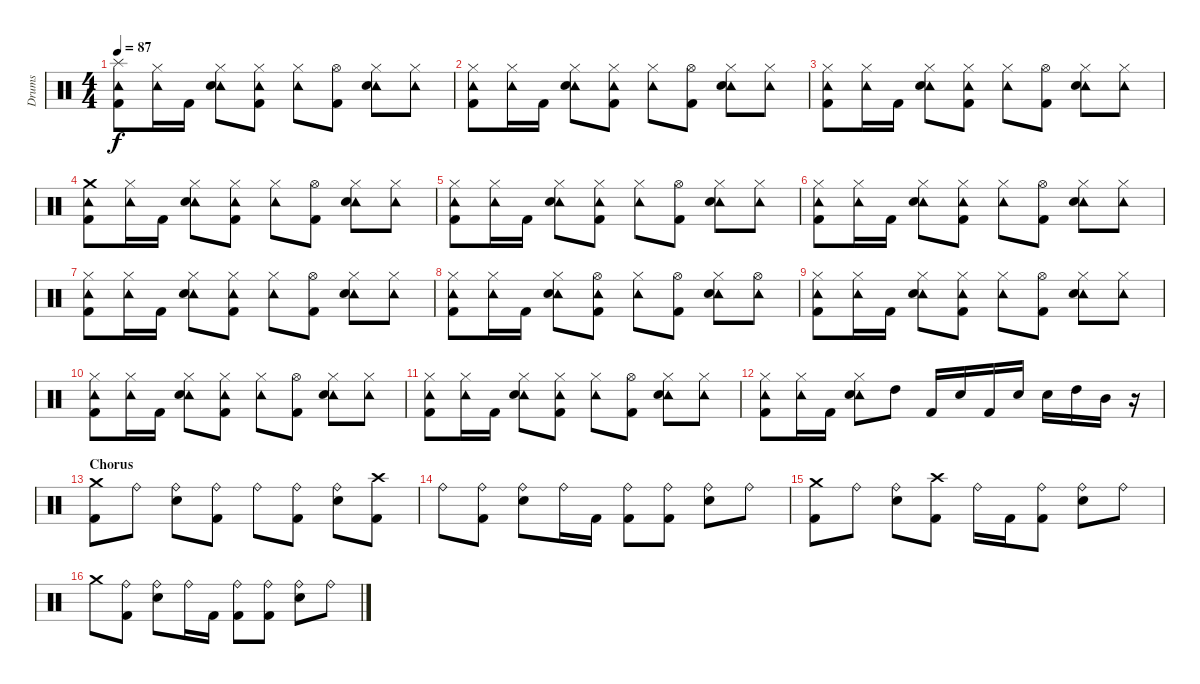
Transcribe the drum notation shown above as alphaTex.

\track ("Drums" "Drums") {instrument percussion}
\staff {score}
\articulation defaults
\ts (4 4)
\tempo 87
\clef neutral
\ks c
("Tambourine (hit)" "Splash (hit)" "Kick (hit) 2").8{dy f} ("Tambourine (hit)" "Hi-Hat (closed)").16 "Kick (hit) 2".16 ("Tambourine (hit)" "Hi-Hat (closed)" "Snare (hit) 2").8 ("Tambourine (hit)" "Hi-Hat (closed)" "Kick (hit) 2").8 ("Tambourine (hit)" "Hi-Hat (closed)").8 ("Hi-Hat (open)" "Kick (hit) 2").8 ("Tambourine (hit)" "Hi-Hat (closed)" "Snare (hit) 2").8 ("Tambourine (hit)" "Hi-Hat (closed)").8 |
("Tambourine (hit)" "Hi-Hat (closed)" "Kick (hit) 2").8 ("Tambourine (hit)" "Hi-Hat (closed)").16 "Kick (hit) 2".16 ("Tambourine (hit)" "Hi-Hat (closed)" "Snare (hit) 2").8 ("Tambourine (hit)" "Hi-Hat (closed)" "Kick (hit) 2").8 ("Tambourine (hit)" "Hi-Hat (closed)").8 ("Hi-Hat (open)" "Kick (hit) 2").8 ("Tambourine (hit)" "Hi-Hat (closed)" "Snare (hit) 2").8 ("Tambourine (hit)" "Hi-Hat (closed)").8 |
("Tambourine (hit)" "Hi-Hat (closed)" "Kick (hit) 2").8 ("Tambourine (hit)" "Hi-Hat (closed)").16 "Kick (hit) 2".16 ("Tambourine (hit)" "Hi-Hat (closed)" "Snare (hit) 2").8 ("Tambourine (hit)" "Hi-Hat (closed)" "Kick (hit) 2").8 ("Tambourine (hit)" "Hi-Hat (closed)").8 ("Hi-Hat (open)" "Kick (hit) 2").8 ("Tambourine (hit)" "Hi-Hat (closed)" "Snare (hit) 2").8 ("Tambourine (hit)" "Hi-Hat (closed)").8 |
("Tambourine (hit)" "Crash medium (hit)" "Kick (hit) 2").8 ("Tambourine (hit)" "Hi-Hat (closed)").16 "Kick (hit) 2".16 ("Tambourine (hit)" "Hi-Hat (closed)" "Snare (hit) 2").8 ("Tambourine (hit)" "Hi-Hat (closed)" "Kick (hit) 2").8 ("Tambourine (hit)" "Hi-Hat (closed)").8 ("Hi-Hat (open)" "Kick (hit) 2").8 ("Tambourine (hit)" "Hi-Hat (closed)" "Snare (hit) 2").8 ("Tambourine (hit)" "Hi-Hat (closed)").8 |
("Tambourine (hit)" "Hi-Hat (closed)" "Kick (hit) 2").8 ("Tambourine (hit)" "Hi-Hat (closed)").16 "Kick (hit) 2".16 ("Tambourine (hit)" "Hi-Hat (closed)" "Snare (hit) 2").8 ("Tambourine (hit)" "Hi-Hat (closed)" "Kick (hit) 2").8 ("Tambourine (hit)" "Hi-Hat (closed)").8 ("Hi-Hat (open)" "Kick (hit) 2").8 ("Tambourine (hit)" "Hi-Hat (closed)" "Snare (hit) 2").8 ("Tambourine (hit)" "Hi-Hat (closed)").8 |
("Tambourine (hit)" "Hi-Hat (closed)" "Kick (hit) 2").8 ("Tambourine (hit)" "Hi-Hat (closed)").16 "Kick (hit) 2".16 ("Tambourine (hit)" "Hi-Hat (closed)" "Snare (hit) 2").8 ("Tambourine (hit)" "Hi-Hat (closed)" "Kick (hit) 2").8 ("Tambourine (hit)" "Hi-Hat (closed)").8 ("Hi-Hat (open)" "Kick (hit) 2").8 ("Tambourine (hit)" "Hi-Hat (closed)" "Snare (hit) 2").8 ("Tambourine (hit)" "Hi-Hat (closed)").8 |
("Tambourine (hit)" "Hi-Hat (closed)" "Kick (hit) 2").8 ("Tambourine (hit)" "Hi-Hat (closed)").16 "Kick (hit) 2".16 ("Tambourine (hit)" "Hi-Hat (closed)" "Snare (hit) 2").8 ("Tambourine (hit)" "Hi-Hat (closed)" "Kick (hit) 2").8 ("Tambourine (hit)" "Hi-Hat (closed)").8 ("Hi-Hat (open)" "Kick (hit) 2").8 ("Tambourine (hit)" "Hi-Hat (closed)" "Snare (hit) 2").8 ("Tambourine (hit)" "Hi-Hat (closed)").8 |
("Tambourine (hit)" "Hi-Hat (closed)" "Kick (hit) 2").8 ("Tambourine (hit)" "Hi-Hat (closed)").16 "Kick (hit) 2".16 ("Tambourine (hit)" "Hi-Hat (closed)" "Snare (hit) 2").8 ("Tambourine (hit)" "Hi-Hat (open)" "Kick (hit) 2").8 ("Tambourine (hit)" "Hi-Hat (closed)").8 ("Hi-Hat (open)" "Kick (hit) 2").8 ("Tambourine (hit)" "Hi-Hat (closed)" "Snare (hit) 2").8 ("Tambourine (hit)" "Hi-Hat (open)").8 |
("Tambourine (hit)" "Hi-Hat (closed)" "Kick (hit) 2").8 ("Tambourine (hit)" "Hi-Hat (closed)").16 "Kick (hit) 2".16 ("Tambourine (hit)" "Hi-Hat (closed)" "Snare (hit) 2").8 ("Tambourine (hit)" "Hi-Hat (closed)" "Kick (hit) 2").8 ("Tambourine (hit)" "Hi-Hat (closed)").8 ("Hi-Hat (open)" "Kick (hit) 2").8 ("Tambourine (hit)" "Hi-Hat (closed)" "Snare (hit) 2").8 ("Tambourine (hit)" "Hi-Hat (closed)").8 |
("Tambourine (hit)" "Hi-Hat (closed)" "Kick (hit) 2").8 ("Tambourine (hit)" "Hi-Hat (closed)").16 "Kick (hit) 2".16 ("Tambourine (hit)" "Hi-Hat (closed)" "Snare (hit) 2").8 ("Tambourine (hit)" "Hi-Hat (closed)" "Kick (hit) 2").8 ("Tambourine (hit)" "Hi-Hat (closed)").8 ("Hi-Hat (open)" "Kick (hit) 2").8 ("Tambourine (hit)" "Hi-Hat (closed)" "Snare (hit) 2").8 ("Tambourine (hit)" "Hi-Hat (closed)").8 |
("Tambourine (hit)" "Hi-Hat (closed)" "Kick (hit) 2").8 ("Tambourine (hit)" "Hi-Hat (closed)").16 "Kick (hit) 2".16 ("Tambourine (hit)" "Hi-Hat (closed)" "Snare (hit) 2").8 ("Tambourine (hit)" "Hi-Hat (closed)" "Kick (hit) 2").8 ("Tambourine (hit)" "Hi-Hat (closed)").8 ("Hi-Hat (open)" "Kick (hit) 2").8 ("Tambourine (hit)" "Hi-Hat (closed)" "Snare (hit) 2").8 ("Tambourine (hit)" "Hi-Hat (closed)").8 |
("Tambourine (hit)" "Hi-Hat (closed)" "Kick (hit) 2").8 ("Tambourine (hit)" "Hi-Hat (closed)").16 "Kick (hit) 2".16 ("Tambourine (hit)" "Hi-Hat (closed)" "Snare (hit) 2").8 "High Tom (hit)".8 "Kick (hit) 2".16 "Snare (hit) 2".16 "Kick (hit) 2".16 "Snare (hit) 2".16 "Snare (hit) 2".16 "High Tom (hit)".16 "Mid Tom (hit)".16 r.16 |
\section ("" "Chorus")
("Crash medium (hit)" "Kick (hit) 2").8 "Ride (bell)".8 ("Ride (bell)" "Snare (hit) 2").8 ("Ride (bell)" "Kick (hit) 2").8 "Ride (bell)".8 ("Ride (bell)" "Kick (hit) 2").8 ("Ride (bell)" "Snare (hit) 2").8 ("Crash high (hit)" "Kick (hit) 2").8 |
"Ride (bell)".8 ("Ride (bell)" "Kick (hit) 2").8 ("Ride (bell)" "Snare (hit) 2").8 "Ride (bell)".16 "Kick (hit) 2".16 ("Ride (bell)" "Kick (hit) 2").8 ("Ride (bell)" "Kick (hit) 2").8 ("Ride (bell)" "Snare (hit) 2").8 "Ride (bell)".8 |
("Crash medium (hit)" "Kick (hit) 2").8 "Ride (bell)".8 ("Ride (bell)" "Snare (hit) 2").8 ("Crash high (hit)" "Kick (hit) 2").8 "Ride (bell)".16 "Kick (hit) 2".16 ("Ride (bell)" "Kick (hit) 2").8 ("Ride (bell)" "Snare (hit) 2").8 "Ride (bell)".8 |
"Crash medium (hit)".8 ("Ride (bell)" "Kick (hit) 2").8 ("Ride (bell)" "Snare (hit) 2").8 "Ride (bell)".16 "Kick (hit) 2".16 ("Ride (bell)" "Kick (hit) 2").8 ("Ride (bell)" "Kick (hit) 2").8 ("Ride (bell)" "Snare (hit) 2").8 "Ride (bell)".8
